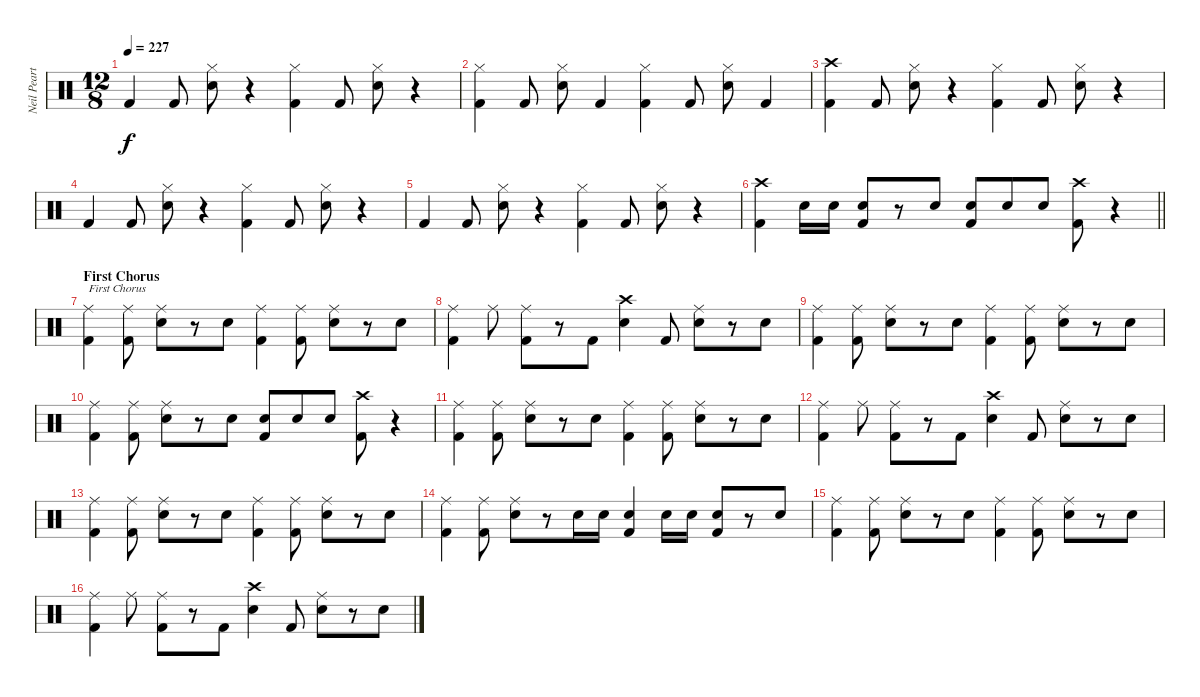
\track ("Neil Peart" "Neil Peart") {instrument percussion}
\staff {score}
\articulation defaults
\ts (12 8)
\tempo 227
\clef neutral
\ks c "Kick (hit) 2".4{dy f} "Kick (hit) 2".8
("Electric Snare (hit)" "Hi-Hat (closed)").8 r.4 ("Hi-Hat (closed)" "Kick (hit) 2").4 "Kick (hit) 2".8 ("Electric Snare (hit)" "Hi-Hat (closed)").8 r.4 |
("Hi-Hat (closed)" "Kick (hit) 2").4 "Kick (hit) 2".8 ("Electric Snare (hit)" "Hi-Hat (closed)").8 "Kick (hit) 2".4 ("Hi-Hat (closed)" "Kick (hit) 2").4 "Kick (hit) 2".8 ("Electric Snare (hit)" "Hi-Hat (closed)").8 "Kick (hit) 2".4 |
("Crash high (hit)" "Kick (hit) 2").4 "Kick (hit) 2".8 ("Electric Snare (hit)" "Hi-Hat (closed)").8 r.4 ("Hi-Hat (closed)" "Kick (hit) 2").4 "Kick (hit) 2".8 ("Electric Snare (hit)" "Hi-Hat (closed)").8 r.4 |
"Kick (hit) 2".4 "Kick (hit) 2".8 ("Electric Snare (hit)" "Hi-Hat (closed)").8 r.4 ("Hi-Hat (closed)" "Kick (hit) 2").4 "Kick (hit) 2".8 ("Electric Snare (hit)" "Hi-Hat (closed)").8 r.4 |
"Kick (hit) 2".4 "Kick (hit) 2".8 ("Electric Snare (hit)" "Hi-Hat (closed)").8 r.4 ("Hi-Hat (closed)" "Kick (hit) 2").4 "Kick (hit) 2".8 ("Electric Snare (hit)" "Hi-Hat (closed)").8 r.4 |
\barLineRight lightlight
("Crash high (hit)" "Kick (hit) 2").4 "Electric Snare (hit)".16 "Electric Snare (hit)".16 ("Electric Snare (hit)" "Kick (hit) 2").8 r.8 "Electric Snare (hit)".8 ("Electric Snare (hit)" "Kick (hit) 2").8 "Electric Snare (hit)".8 "Electric Snare (hit)".8 ("Crash high (hit)" "Kick (hit) 2").8 r.4 |
\section ("" "First Chorus")
("Ride (middle)" "Kick (hit) 2").4{txt "First Chorus"} ("Ride (middle)" "Kick (hit) 2").8 ("Electric Snare (hit)" "Ride (middle)").8 r.8 "Electric Snare (hit)".8 ("Ride (middle)" "Kick (hit) 2").4 ("Ride (middle)" "Kick (hit) 2").8 ("Electric Snare (hit)" "Ride (middle)").8 r.8 "Electric Snare (hit)".8 |
("Ride (middle)" "Kick (hit) 2").4 "Ride (middle)".8 ("Ride (middle)" "Kick (hit) 2").8 r.8 "Kick (hit) 2".8 ("Electric Snare (hit)" "Crash high (hit)").4 "Kick (hit) 2".8 ("Electric Snare (hit)" "Ride (middle)").8 r.8 "Electric Snare (hit)".8 |
("Ride (middle)" "Kick (hit) 2").4 ("Ride (middle)" "Kick (hit) 2").8 ("Electric Snare (hit)" "Ride (middle)").8 r.8 "Electric Snare (hit)".8 ("Ride (middle)" "Kick (hit) 2").4 ("Ride (middle)" "Kick (hit) 2").8 ("Electric Snare (hit)" "Ride (middle)").8 r.8 "Electric Snare (hit)".8 |
("Ride (middle)" "Kick (hit) 2").4 ("Ride (middle)" "Kick (hit) 2").8 ("Electric Snare (hit)" "Ride (middle)").8 r.8 "Electric Snare (hit)".8 ("Electric Snare (hit)" "Kick (hit) 2").8 "Electric Snare (hit)".8 "Electric Snare (hit)".8 ("Crash high (hit)" "Kick (hit) 2").8 r.4 |
("Ride (middle)" "Kick (hit) 2").4 ("Ride (middle)" "Kick (hit) 2").8 ("Electric Snare (hit)" "Ride (middle)").8 r.8 "Electric Snare (hit)".8 ("Ride (middle)" "Kick (hit) 2").4 ("Ride (middle)" "Kick (hit) 2").8 ("Electric Snare (hit)" "Ride (middle)").8 r.8 "Electric Snare (hit)".8 |
("Ride (middle)" "Kick (hit) 2").4 "Ride (middle)".8 ("Ride (middle)" "Kick (hit) 2").8 r.8 "Kick (hit) 2".8 ("Electric Snare (hit)" "Crash high (hit)").4 "Kick (hit) 2".8 ("Electric Snare (hit)" "Ride (middle)").8 r.8 "Electric Snare (hit)".8 |
("Ride (middle)" "Kick (hit) 2").4 ("Ride (middle)" "Kick (hit) 2").8 ("Electric Snare (hit)" "Ride (middle)").8 r.8 "Electric Snare (hit)".8 ("Ride (middle)" "Kick (hit) 2").4 ("Ride (middle)" "Kick (hit) 2").8 ("Electric Snare (hit)" "Ride (middle)").8 r.8 "Electric Snare (hit)".8 |
("Ride (middle)" "Kick (hit) 2").4 ("Ride (middle)" "Kick (hit) 2").8 ("Electric Snare (hit)" "Ride (middle)").8 r.8 "Electric Snare (hit)".16 "Electric Snare (hit)".16 ("Electric Snare (hit)" "Kick (hit) 2").4 "Electric Snare (hit)".16 "Electric Snare (hit)".16 ("Electric Snare (hit)" "Kick (hit) 2").8 r.8 "Electric Snare (hit)".8 |
("Ride (middle)" "Kick (hit) 2").4 ("Ride (middle)" "Kick (hit) 2").8 ("Electric Snare (hit)" "Ride (middle)").8 r.8 "Electric Snare (hit)".8 ("Ride (middle)" "Kick (hit) 2").4 ("Ride (middle)" "Kick (hit) 2").8 ("Electric Snare (hit)" "Ride (middle)").8 r.8 "Electric Snare (hit)".8 |
("Ride (middle)" "Kick (hit) 2").4 "Ride (middle)".8 ("Ride (middle)" "Kick (hit) 2").8 r.8 "Kick (hit) 2".8 ("Electric Snare (hit)" "Crash high (hit)").4 "Kick (hit) 2".8 ("Electric Snare (hit)" "Ride (middle)").8 r.8 "Electric Snare (hit)".8
